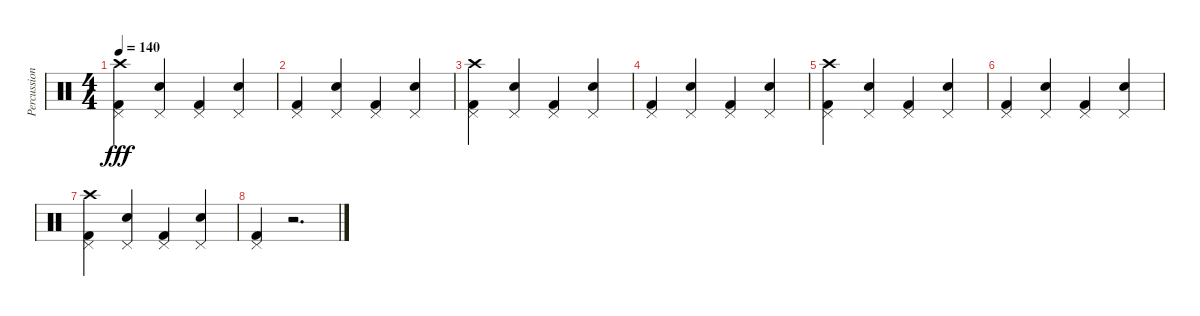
\track ("Percussions" "Percussion") {instrument percussion}
\staff {score}
\articulation defaults
\ts (4 4)
\tempo 140
\clef neutral
\ks c
("Crash high (hit)" "Pedal Hi-Hat (hit)" "Kick (hit) 2").4{dy fff} ("Pedal Hi-Hat (hit)" "Snare (hit) 2").4 ("Pedal Hi-Hat (hit)" "Kick (hit) 2").4 ("Pedal Hi-Hat (hit)" "Snare (hit) 2").4 |
("Pedal Hi-Hat (hit)" "Kick (hit) 2").4 ("Pedal Hi-Hat (hit)" "Snare (hit) 2").4 ("Pedal Hi-Hat (hit)" "Kick (hit) 2").4 ("Pedal Hi-Hat (hit)" "Snare (hit) 2").4 |
("Crash high (hit)" "Pedal Hi-Hat (hit)" "Kick (hit) 2").4 ("Pedal Hi-Hat (hit)" "Snare (hit) 2").4 ("Pedal Hi-Hat (hit)" "Kick (hit) 2").4 ("Pedal Hi-Hat (hit)" "Snare (hit) 2").4 |
("Pedal Hi-Hat (hit)" "Kick (hit) 2").4 ("Pedal Hi-Hat (hit)" "Snare (hit) 2").4 ("Pedal Hi-Hat (hit)" "Kick (hit) 2").4 ("Pedal Hi-Hat (hit)" "Snare (hit) 2").4 |
("Crash high (hit)" "Pedal Hi-Hat (hit)" "Kick (hit) 2").4 ("Pedal Hi-Hat (hit)" "Snare (hit) 2").4 ("Pedal Hi-Hat (hit)" "Kick (hit) 2").4 ("Pedal Hi-Hat (hit)" "Snare (hit) 2").4 |
("Pedal Hi-Hat (hit)" "Kick (hit) 2").4 ("Pedal Hi-Hat (hit)" "Snare (hit) 2").4 ("Pedal Hi-Hat (hit)" "Kick (hit) 2").4 ("Pedal Hi-Hat (hit)" "Snare (hit) 2").4 |
("Crash high (hit)" "Pedal Hi-Hat (hit)" "Kick (hit) 2").4 ("Pedal Hi-Hat (hit)" "Snare (hit) 2").4 ("Pedal Hi-Hat (hit)" "Kick (hit) 2").4 ("Pedal Hi-Hat (hit)" "Snare (hit) 2").4 |
("Pedal Hi-Hat (hit)" "Kick (hit) 2").4 r.2{d}
